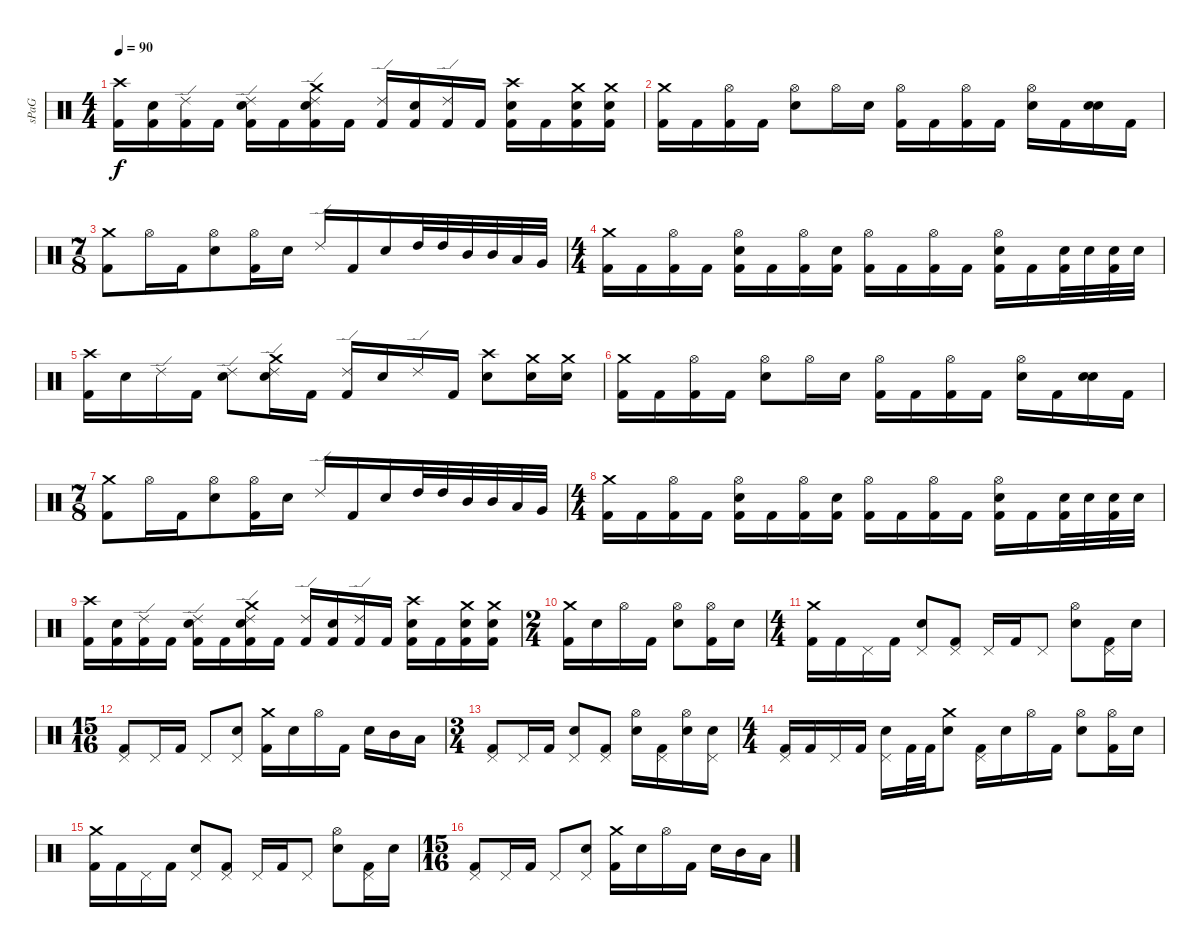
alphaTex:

\track ("sPaG" "sPaG") {instrument percussion}
\staff {score}
\articulation defaults
\ts (4 4)
\tempo 90
\clef neutral
\ks c
("Crash high (hit)" "Kick (hit) 2").16{dy f} ("Snare (hit) 2" "Kick (hit) 2").16 ("Ride (edge) 2" "Kick (hit) 2").16 "Kick (hit) 2".16 ("Ride (edge) 2" "Snare (hit) 2" "Kick (hit) 2").16 "Kick (hit) 2".16 ("Crash medium (hit)" "Ride (edge) 2" "Snare (hit) 2" "Kick (hit) 2").16 "Kick (hit) 2".16 ("Ride (edge) 2" "Kick (hit) 2").16 ("Snare (hit) 2" "Kick (hit) 2").16 ("Ride (edge) 2" "Kick (hit) 2").16 "Kick (hit) 2".16 ("Crash high (hit)" "Snare (hit) 2" "Kick (hit) 2").16 "Kick (hit) 2".16 ("Crash medium (hit)" "Snare (hit) 2" "Kick (hit) 2").16 ("Crash medium (hit)" "Snare (hit) 2" "Kick (hit) 2").16 |
("Crash medium (hit)" "Kick (hit) 2").16 "Kick (hit) 2".16 ("Hi-Hat (open)" "Kick (hit) 2").16 "Kick (hit) 2".16 ("Hi-Hat (open)" "Snare (hit) 2").8 "Hi-Hat (open)".16 "Snare (hit) 2".16 ("Hi-Hat (open)" "Kick (hit) 2").16 "Kick (hit) 2".16 ("Hi-Hat (open)" "Kick (hit) 2").16 "Kick (hit) 2".16 ("Hi-Hat (open)" "Snare (hit) 2").16 "Kick (hit) 2".16 ("Snare (hit) 2" "Snare (hit) 2").16 "Kick (hit) 2".16 |
\ts (7 8)
("Crash medium (hit)" "Kick (hit) 2").8 "Hi-Hat (open)".16 "Kick (hit) 2".16 ("Hi-Hat (open)" "Snare (hit) 2").8 ("Hi-Hat (open)" "Kick (hit) 2").16 "Snare (hit) 2".16 "Ride (edge) 2".16 "Kick (hit) 2".16 "Snare (hit) 2".16 "High Tom (hit)".32 "High Tom (hit)".32 "Mid Tom (hit)".32 "Mid Tom (hit)".32 "Low Tom (hit)".32 "Very Low Tom (hit)".32 |
\ts (4 4)
("Crash medium (hit)" "Kick (hit) 2").16 "Kick (hit) 2".16 ("Hi-Hat (open)" "Kick (hit) 2").16 "Kick (hit) 2".16 ("Hi-Hat (open)" "Snare (hit) 2" "Kick (hit) 2").16 "Kick (hit) 2".16 ("Hi-Hat (open)" "Kick (hit) 2").16 ("Snare (hit) 2" "Kick (hit) 2").16 ("Hi-Hat (open)" "Kick (hit) 2").16 "Kick (hit) 2".16 ("Hi-Hat (open)" "Kick (hit) 2").16 "Kick (hit) 2".16 ("Hi-Hat (open)" "Snare (hit) 2" "Kick (hit) 2").16 "Kick (hit) 2".16 ("Snare (hit) 2" "Kick (hit) 2").32 "Snare (hit) 2".32 ("Snare (hit) 2" "Kick (hit) 2").32 "Snare (hit) 2".32 |
("Crash high (hit)" "Kick (hit) 2").16 "Snare (hit) 2".16 "Ride (edge) 2".16 "Kick (hit) 2".16 ("Ride (edge) 2" "Snare (hit) 2").8 ("Crash medium (hit)" "Ride (edge) 2" "Snare (hit) 2").16 "Kick (hit) 2".16 ("Ride (edge) 2" "Kick (hit) 2").16 "Snare (hit) 2".16 "Ride (edge) 2".16 "Kick (hit) 2".16 ("Crash high (hit)" "Snare (hit) 2").8 ("Crash medium (hit)" "Snare (hit) 2").16 ("Crash medium (hit)" "Snare (hit) 2").16 |
("Crash medium (hit)" "Kick (hit) 2").16 "Kick (hit) 2".16 ("Hi-Hat (open)" "Kick (hit) 2").16 "Kick (hit) 2".16 ("Hi-Hat (open)" "Snare (hit) 2").8 "Hi-Hat (open)".16 "Snare (hit) 2".16 ("Hi-Hat (open)" "Kick (hit) 2").16 "Kick (hit) 2".16 ("Hi-Hat (open)" "Kick (hit) 2").16 "Kick (hit) 2".16 ("Hi-Hat (open)" "Snare (hit) 2").16 "Kick (hit) 2".16 ("Snare (hit) 2" "Snare (hit) 2").16 "Kick (hit) 2".16 |
\ts (7 8)
("Crash medium (hit)" "Kick (hit) 2").8 "Hi-Hat (open)".16 "Kick (hit) 2".16 ("Hi-Hat (open)" "Snare (hit) 2").8 ("Hi-Hat (open)" "Kick (hit) 2").16 "Snare (hit) 2".16 "Ride (edge) 2".16 "Kick (hit) 2".16 "Snare (hit) 2".16 "High Tom (hit)".32 "High Tom (hit)".32 "Mid Tom (hit)".32 "Mid Tom (hit)".32 "Low Tom (hit)".32 "Very Low Tom (hit)".32 |
\ts (4 4)
("Crash medium (hit)" "Kick (hit) 2").16 "Kick (hit) 2".16 ("Hi-Hat (open)" "Kick (hit) 2").16 "Kick (hit) 2".16 ("Hi-Hat (open)" "Snare (hit) 2" "Kick (hit) 2").16 "Kick (hit) 2".16 ("Hi-Hat (open)" "Kick (hit) 2").16 ("Snare (hit) 2" "Kick (hit) 2").16 ("Hi-Hat (open)" "Kick (hit) 2").16 "Kick (hit) 2".16 ("Hi-Hat (open)" "Kick (hit) 2").16 "Kick (hit) 2".16 ("Hi-Hat (open)" "Snare (hit) 2" "Kick (hit) 2").16 "Kick (hit) 2".16 ("Snare (hit) 2" "Kick (hit) 2").32 "Snare (hit) 2".32 ("Snare (hit) 2" "Kick (hit) 2").32 "Snare (hit) 2".32 |
("Crash high (hit)" "Kick (hit) 2").16 ("Snare (hit) 2" "Kick (hit) 2").16 ("Ride (edge) 2" "Kick (hit) 2").16 "Kick (hit) 2".16 ("Ride (edge) 2" "Snare (hit) 2" "Kick (hit) 2").16 "Kick (hit) 2".16 ("Crash medium (hit)" "Ride (edge) 2" "Snare (hit) 2" "Kick (hit) 2").16 "Kick (hit) 2".16 ("Ride (edge) 2" "Kick (hit) 2").16 ("Snare (hit) 2" "Kick (hit) 2").16 ("Ride (edge) 2" "Kick (hit) 2").16 "Kick (hit) 2".16 ("Crash high (hit)" "Snare (hit) 2" "Kick (hit) 2").16 "Kick (hit) 2".16 ("Crash medium (hit)" "Snare (hit) 2" "Kick (hit) 2").16 ("Crash medium (hit)" "Snare (hit) 2" "Kick (hit) 2").16 |
\ts (2 4)
("Crash medium (hit)" "Kick (hit) 2").16 "Snare (hit) 2".16 "Hi-Hat (open)".16 "Kick (hit) 2".16 ("Hi-Hat (open)" "Snare (hit) 2").8 ("Hi-Hat (open)" "Kick (hit) 2").16 "Snare (hit) 2".16 |
\ts (4 4)
("Crash medium (hit)" "Kick (hit) 2").16 "Kick (hit) 2".16 "Pedal Hi-Hat (hit)".16 "Kick (hit) 2".16 ("Pedal Hi-Hat (hit)" "Snare (hit) 2").8 ("Pedal Hi-Hat (hit)" "Kick (hit) 2").8 "Pedal Hi-Hat (hit)".16 "Kick (hit) 2".16 "Pedal Hi-Hat (hit)".8 ("Hi-Hat (open)" "Snare (hit) 2").8 ("Pedal Hi-Hat (hit)" "Kick (hit) 2").16 "Snare (hit) 2".16 |
\ts (15 16)
("Pedal Hi-Hat (hit)" "Kick (hit) 2").8 "Pedal Hi-Hat (hit)".16 "Kick (hit) 2".16 "Pedal Hi-Hat (hit)".8 ("Pedal Hi-Hat (hit)" "Snare (hit) 2").8 ("Crash medium (hit)" "Kick (hit) 2").16 "Snare (hit) 2".16 "Hi-Hat (open)".16 "Kick (hit) 2".16 "Snare (hit) 2".16 "Mid Tom (hit)".16 "Low Tom (hit)".16 |
\ts (3 4)
("Pedal Hi-Hat (hit)" "Kick (hit) 2").8 "Pedal Hi-Hat (hit)".16 "Kick (hit) 2".16 ("Pedal Hi-Hat (hit)" "Snare (hit) 2").8 ("Pedal Hi-Hat (hit)" "Kick (hit) 2").8 ("Hi-Hat (open)" "Snare (hit) 2").16 ("Pedal Hi-Hat (hit)" "Kick (hit) 2").16 ("Hi-Hat (open)" "Snare (hit) 2").16 ("Pedal Hi-Hat (hit)" "Snare (hit) 2").16 |
\ts (4 4)
("Pedal Hi-Hat (hit)" "Kick (hit) 2").16 "Kick (hit) 2".16 "Pedal Hi-Hat (hit)".16 "Kick (hit) 2".16 ("Pedal Hi-Hat (hit)" "Snare (hit) 2").16 "Kick (hit) 2".32 "Kick (hit) 2".32 ("Crash medium (hit)" "Snare (hit) 2").8 ("Pedal Hi-Hat (hit)" "Kick (hit) 2").16 "Snare (hit) 2".16 "Hi-Hat (open)".16 "Kick (hit) 2".16 ("Hi-Hat (open)" "Snare (hit) 2").8 ("Hi-Hat (open)" "Kick (hit) 2").16 "Snare (hit) 2".16 |
("Crash medium (hit)" "Kick (hit) 2").16 "Kick (hit) 2".16 "Pedal Hi-Hat (hit)".16 "Kick (hit) 2".16 ("Pedal Hi-Hat (hit)" "Snare (hit) 2").8 ("Pedal Hi-Hat (hit)" "Kick (hit) 2").8 "Pedal Hi-Hat (hit)".16 "Kick (hit) 2".16 "Pedal Hi-Hat (hit)".8 ("Hi-Hat (open)" "Snare (hit) 2").8 ("Pedal Hi-Hat (hit)" "Kick (hit) 2").16 "Snare (hit) 2".16 |
\ts (15 16)
("Pedal Hi-Hat (hit)" "Kick (hit) 2").8 "Pedal Hi-Hat (hit)".16 "Kick (hit) 2".16 "Pedal Hi-Hat (hit)".8 ("Pedal Hi-Hat (hit)" "Snare (hit) 2").8 ("Crash medium (hit)" "Kick (hit) 2").16 "Snare (hit) 2".16 "Hi-Hat (open)".16 "Kick (hit) 2".16 "Snare (hit) 2".16 "Mid Tom (hit)".16 "Low Tom (hit)".16
